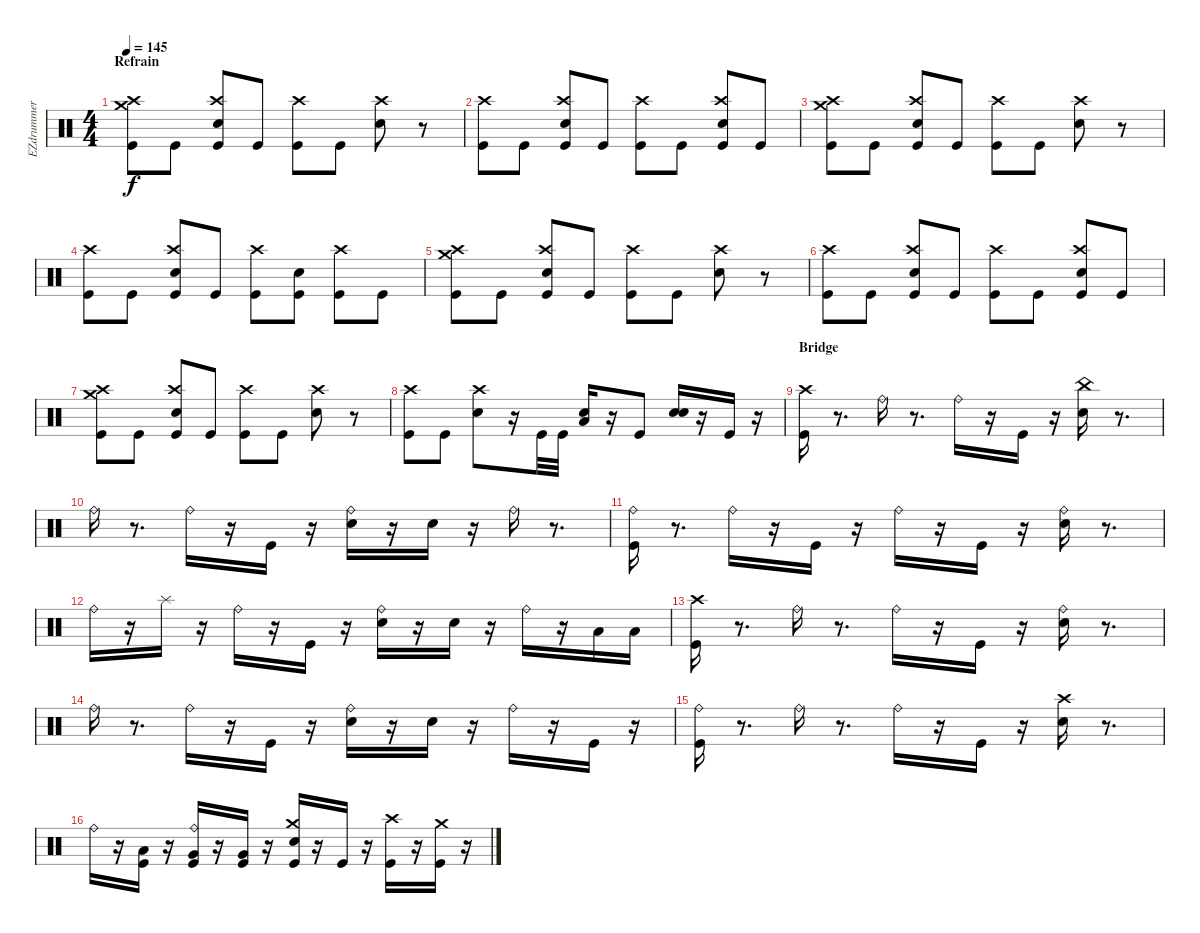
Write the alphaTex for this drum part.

\track ("EZdrummer 01" "EZdrummer ") {instrument percussion}
\staff {score}
\articulation defaults
\ts (4 4)
\section ("" "Refrain")
\tempo 145
\clef neutral
\ks c
("Kick (hit)" "Crash high (hit)" "Crash medium (hit)").8{dy f} "Kick (hit)".8 ("Kick (hit)" "Snare (hit) 2" "Crash high (hit)").8 "Kick (hit)".8 ("Kick (hit)" "Crash high (hit)").8 "Kick (hit)".8 ("Snare (hit) 2" "Crash high (hit)").8 r.8 |
("Kick (hit)" "Crash high (hit)").8 "Kick (hit)".8 ("Kick (hit)" "Snare (hit) 2" "Crash high (hit)").8 "Kick (hit)".8 ("Kick (hit)" "Crash high (hit)").8 "Kick (hit)".8 ("Kick (hit)" "Snare (hit) 2" "Crash high (hit)").8 "Kick (hit)".8 |
("Kick (hit)" "Crash high (hit)" "Crash medium (hit)").8 "Kick (hit)".8 ("Kick (hit)" "Snare (hit) 2" "Crash high (hit)").8 "Kick (hit)".8 ("Crash high (hit)" "Kick (hit)").8 "Kick (hit)".8 ("Snare (hit) 2" "Crash high (hit)").8 r.8 |
("Kick (hit)" "Crash high (hit)").8 "Kick (hit)".8 ("Kick (hit)" "Snare (hit) 2" "Crash high (hit)").8 "Kick (hit)".8 ("Kick (hit)" "Crash high (hit)").8 ("Kick (hit)" "Snare (hit) 2").8 ("Kick (hit)" "Crash high (hit)").8 "Kick (hit)".8 |
("Kick (hit)" "Crash high (hit)" "Crash medium (hit)").8 "Kick (hit)".8 ("Kick (hit)" "Snare (hit) 2" "Crash high (hit)").8 "Kick (hit)".8 ("Crash high (hit)" "Kick (hit)").8 "Kick (hit)".8 ("Snare (hit) 2" "Crash high (hit)").8 r.8 |
("Kick (hit)" "Crash high (hit)").8 "Kick (hit)".8 ("Kick (hit)" "Snare (hit) 2" "Crash high (hit)").8 "Kick (hit)".8 ("Kick (hit)" "Crash high (hit)").8 "Kick (hit)".8 ("Kick (hit)" "Snare (hit) 2" "Crash high (hit)").8 "Kick (hit)".8 |
("Kick (hit)" "Crash high (hit)" "Crash medium (hit)").8 "Kick (hit)".8 ("Kick (hit)" "Snare (hit) 2" "Crash high (hit)").8 "Kick (hit)".8 ("Crash high (hit)" "Kick (hit)").8 "Kick (hit)".8 ("Snare (hit) 2" "Crash high (hit)").8 r.8 |
("Kick (hit)" "Crash high (hit)").8 "Kick (hit)".8 ("Snare (hit) 2" "Crash high (hit)").8 r.16 "Kick (hit)".32 "Kick (hit)".32 ("Low Tom (hit)" "Snare (hit) 2").16 r.16 "Kick (hit)".8 ("Snare (hit) 2" "Electric Snare (hit)").16 r.16 "Kick (hit)".16 r.16 |
\section ("" "Bridge")
("Kick (hit)" "Crash high (hit)").16 r.8{d} "Ride (bell)".16 r.8{d} "Ride (bell)".16 r.16 "Kick (hit)".16 r.16 ("Snare (hit) 2" "China (hit)").16 r.8{d} |
"Ride (bell)".16 r.8{d} "Ride (bell)".16 r.16 "Kick (hit)".16 r.16 ("Snare (hit) 2" "Ride (bell)").16 r.16 "Snare (hit) 2".16 r.16 "Ride (bell)".16 r.8{d} |
("Kick (hit)" "Ride (bell)").16 r.8{d} "Ride (bell)".16 r.16 "Kick (hit)".16 r.16 "Ride (bell)".16 r.16 "Kick (hit)".16 r.16 ("Snare (hit) 2" "Ride (bell)").16 r.8{d} |
"Ride (bell)".16 r.16 "Splash (hit)".16 r.16 "Ride (bell)".16 r.16 "Kick (hit)".16 r.16 ("Snare (hit) 2" "Ride (bell)").16 r.16 "Snare (hit) 2".16 r.16 "Ride (bell)".16 r.16 "Low Tom (hit)".16 "Low Tom (hit)".16 |
("Kick (hit)" "Crash high (hit)").16 r.8{d} "Ride (bell)".16 r.8{d} "Ride (bell)".16 r.16 "Kick (hit)".16 r.16 ("Snare (hit) 2" "Ride (bell)").16 r.8{d} |
"Ride (bell)".16 r.8{d} "Ride (bell)".16 r.16 "Kick (hit)".16 r.16 ("Snare (hit) 2" "Ride (bell)").16 r.16 "Snare (hit) 2".16 r.16 "Ride (bell)".16 r.16 "Kick (hit)".16 r.16 |
("Kick (hit)" "Ride (bell)").16 r.8{d} "Ride (bell)".16 r.8{d} "Ride (bell)".16 r.16 "Kick (hit)".16 r.16 ("Snare (hit) 2" "Crash high (hit)").16 r.8{d} |
"Ride (bell)".16 r.16 ("Kick (hit)" "Low Tom (hit)").16 r.16 ("Kick (hit)" "Very Low Tom (hit)" "Ride (bell)").16 r.16 ("Kick (hit)" "Very Low Tom (hit)").16 r.16 ("Kick (hit)" "Snare (hit) 2" "Crash medium (hit)").16 r.16 "Kick (hit)".16 r.16 ("Kick (hit)" "Crash high (hit)").16 r.16 ("Kick (hit)" "Crash medium (hit)").16 r.16
